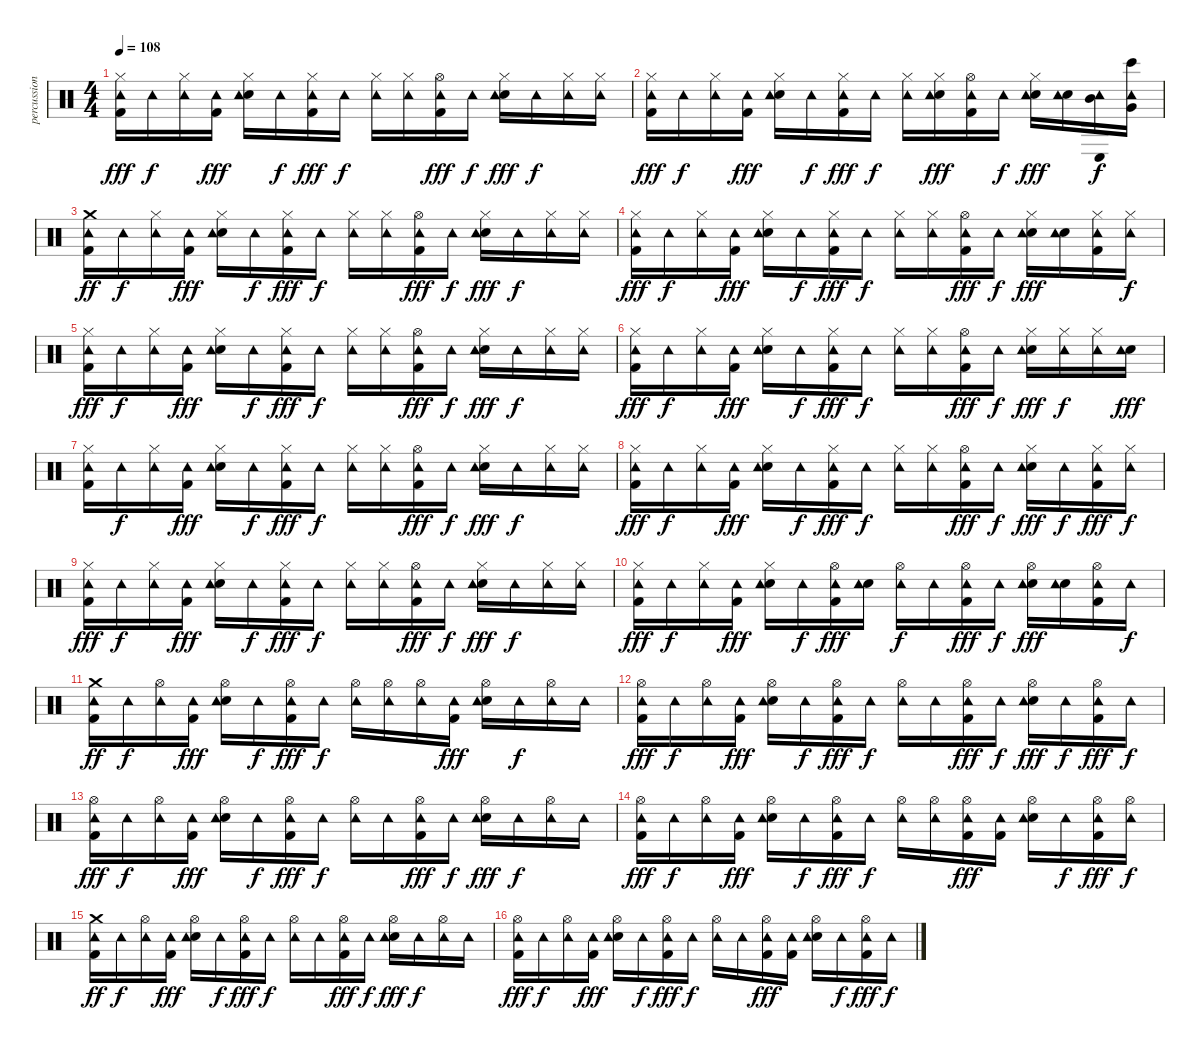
\track ("percussion" "percussion") {instrument percussion}
\staff {score}
\articulation defaults
\ts (4 4)
\tempo 108
\clef neutral
\ks c
("Kick (hit) 2" "Hi-Hat (closed)" "Tambourine (hit)").16{dy fff} "Tambourine (hit)".16{dy f} ("Hi-Hat (closed)" "Tambourine (hit)").16 ("Kick (hit) 2" "Tambourine (hit)").16{dy fff} ("Hi-Hat (closed)" "Electric Snare (hit)" "Tambourine (hit)").16 "Tambourine (hit)".16{dy f} ("Hi-Hat (closed)" "Kick (hit) 2" "Tambourine (hit)").16{dy fff} "Tambourine (hit)".16{dy f} ("Hi-Hat (closed)" "Tambourine (hit)").16 ("Hi-Hat (closed)" "Tambourine (hit)").16 ("Kick (hit) 2" "Hi-Hat (open)" "Tambourine (hit)").16{dy fff} "Tambourine (hit)".16{dy f} ("Hi-Hat (closed)" "Electric Snare (hit)" "Tambourine (hit)").16{dy fff} "Tambourine (hit)".16{dy f} ("Hi-Hat (closed)" "Tambourine (hit)").16 ("Hi-Hat (closed)" "Tambourine (hit)").16 |
("Hi-Hat (closed)" "Kick (hit) 2" "Tambourine (hit)").16{dy fff} "Tambourine (hit)".16{dy f} ("Hi-Hat (closed)" "Tambourine (hit)").16 ("Kick (hit) 2" "Tambourine (hit)").16{dy fff} ("Hi-Hat (closed)" "Electric Snare (hit)" "Tambourine (hit)").16 "Tambourine (hit)".16{dy f} ("Hi-Hat (closed)" "Kick (hit) 2" "Tambourine (hit)").16{dy fff} "Tambourine (hit)".16{dy f} ("Hi-Hat (closed)" "Tambourine (hit)").16 ("Electric Snare (hit)" "Hi-Hat (closed)" "Tambourine (hit)").16{dy fff} ("Kick (hit) 2" "Hi-Hat (open)" "Tambourine (hit)").16 "Tambourine (hit)".16{dy f} ("Hi-Hat (closed)" "Electric Snare (hit)" "Tambourine (hit)").16{dy fff} ("Electric Snare (hit)" "Tambourine (hit)").16 ("Tambourine (hit)" "Conga low (hit)" "Mid Tom (hit)").16{dy f} ("Tambourine (hit)" "Bongo High (hit)" "Very Low Tom (hit)").16 |
("Kick (hit) 2" "Crash medium (hit)" "Tambourine (hit)").16{dy ff} "Tambourine (hit)".16{dy f} ("Hi-Hat (closed)" "Tambourine (hit)").16 ("Kick (hit) 2" "Tambourine (hit)").16{dy fff} ("Hi-Hat (closed)" "Electric Snare (hit)" "Tambourine (hit)").16 "Tambourine (hit)".16{dy f} ("Hi-Hat (closed)" "Kick (hit) 2" "Tambourine (hit)").16{dy fff} "Tambourine (hit)".16{dy f} ("Hi-Hat (closed)" "Tambourine (hit)").16 ("Hi-Hat (closed)" "Tambourine (hit)").16 ("Kick (hit) 2" "Hi-Hat (open)" "Tambourine (hit)").16{dy fff} "Tambourine (hit)".16{dy f} ("Hi-Hat (closed)" "Electric Snare (hit)" "Tambourine (hit)").16{dy fff} "Tambourine (hit)".16{dy f} ("Hi-Hat (closed)" "Tambourine (hit)").16 ("Hi-Hat (closed)" "Tambourine (hit)").16 |
("Hi-Hat (closed)" "Kick (hit) 2" "Tambourine (hit)").16{dy fff} "Tambourine (hit)".16{dy f} ("Hi-Hat (closed)" "Tambourine (hit)").16 ("Kick (hit) 2" "Tambourine (hit)").16{dy fff} ("Hi-Hat (closed)" "Electric Snare (hit)" "Tambourine (hit)").16 "Tambourine (hit)".16{dy f} ("Hi-Hat (closed)" "Kick (hit) 2" "Tambourine (hit)").16{dy fff} "Tambourine (hit)".16{dy f} ("Hi-Hat (closed)" "Tambourine (hit)").16 ("Hi-Hat (closed)" "Tambourine (hit)").16 ("Kick (hit) 2" "Hi-Hat (open)" "Tambourine (hit)").16{dy fff} "Tambourine (hit)".16{dy f} ("Hi-Hat (closed)" "Electric Snare (hit)" "Tambourine (hit)").16{dy fff} ("Electric Snare (hit)" "Tambourine (hit)").16 ("Kick (hit) 2" "Hi-Hat (closed)" "Tambourine (hit)").16 ("Hi-Hat (closed)" "Tambourine (hit)").16{dy f} |
("Kick (hit) 2" "Hi-Hat (closed)" "Tambourine (hit)").16{dy fff} "Tambourine (hit)".16{dy f} ("Hi-Hat (closed)" "Tambourine (hit)").16 ("Kick (hit) 2" "Tambourine (hit)").16{dy fff} ("Hi-Hat (closed)" "Electric Snare (hit)" "Tambourine (hit)").16 "Tambourine (hit)".16{dy f} ("Hi-Hat (closed)" "Kick (hit) 2" "Tambourine (hit)").16{dy fff} "Tambourine (hit)".16{dy f} ("Hi-Hat (closed)" "Tambourine (hit)").16 ("Hi-Hat (closed)" "Tambourine (hit)").16 ("Kick (hit) 2" "Hi-Hat (open)" "Tambourine (hit)").16{dy fff} "Tambourine (hit)".16{dy f} ("Hi-Hat (closed)" "Electric Snare (hit)" "Tambourine (hit)").16{dy fff} "Tambourine (hit)".16{dy f} ("Hi-Hat (closed)" "Tambourine (hit)").16 ("Hi-Hat (closed)" "Tambourine (hit)").16 |
("Hi-Hat (closed)" "Kick (hit) 2" "Tambourine (hit)").16{dy fff} "Tambourine (hit)".16{dy f} ("Hi-Hat (closed)" "Tambourine (hit)").16 ("Kick (hit) 2" "Tambourine (hit)").16{dy fff} ("Hi-Hat (closed)" "Electric Snare (hit)" "Tambourine (hit)").16 "Tambourine (hit)".16{dy f} ("Hi-Hat (closed)" "Kick (hit) 2" "Tambourine (hit)").16{dy fff} "Tambourine (hit)".16{dy f} ("Hi-Hat (closed)" "Tambourine (hit)").16 ("Hi-Hat (closed)" "Tambourine (hit)").16 ("Kick (hit) 2" "Hi-Hat (open)" "Tambourine (hit)").16{dy fff} "Tambourine (hit)".16{dy f} ("Hi-Hat (closed)" "Electric Snare (hit)" "Tambourine (hit)").16{dy fff} ("Hi-Hat (closed)" "Tambourine (hit)").16{dy f} ("Hi-Hat (closed)" "Tambourine (hit)").16 ("Electric Snare (hit)" "Tambourine (hit)").16{dy fff} |
("Kick (hit) 2" "Hi-Hat (closed)" "Tambourine (hit)").16 "Tambourine (hit)".16{dy f} ("Hi-Hat (closed)" "Tambourine (hit)").16 ("Kick (hit) 2" "Tambourine (hit)").16{dy fff} ("Hi-Hat (closed)" "Electric Snare (hit)" "Tambourine (hit)").16 "Tambourine (hit)".16{dy f} ("Hi-Hat (closed)" "Kick (hit) 2" "Tambourine (hit)").16{dy fff} "Tambourine (hit)".16{dy f} ("Hi-Hat (closed)" "Tambourine (hit)").16 ("Hi-Hat (closed)" "Tambourine (hit)").16 ("Kick (hit) 2" "Hi-Hat (open)" "Tambourine (hit)").16{dy fff} "Tambourine (hit)".16{dy f} ("Hi-Hat (closed)" "Electric Snare (hit)" "Tambourine (hit)").16{dy fff} "Tambourine (hit)".16{dy f} ("Hi-Hat (closed)" "Tambourine (hit)").16 ("Hi-Hat (closed)" "Tambourine (hit)").16 |
("Hi-Hat (closed)" "Kick (hit) 2" "Tambourine (hit)").16{dy fff} "Tambourine (hit)".16{dy f} ("Hi-Hat (closed)" "Tambourine (hit)").16 ("Kick (hit) 2" "Tambourine (hit)").16{dy fff} ("Hi-Hat (closed)" "Electric Snare (hit)" "Tambourine (hit)").16 "Tambourine (hit)".16{dy f} ("Hi-Hat (closed)" "Kick (hit) 2" "Tambourine (hit)").16{dy fff} "Tambourine (hit)".16{dy f} ("Hi-Hat (closed)" "Tambourine (hit)").16 ("Hi-Hat (closed)" "Tambourine (hit)").16 ("Kick (hit) 2" "Hi-Hat (open)" "Tambourine (hit)").16{dy fff} "Tambourine (hit)".16{dy f} ("Hi-Hat (closed)" "Electric Snare (hit)" "Tambourine (hit)").16{dy fff} "Tambourine (hit)".16{dy f} ("Kick (hit) 2" "Hi-Hat (closed)" "Tambourine (hit)").16{dy fff} ("Hi-Hat (closed)" "Tambourine (hit)").16{dy f} |
("Kick (hit) 2" "Hi-Hat (closed)" "Tambourine (hit)").16{dy fff} "Tambourine (hit)".16{dy f} ("Hi-Hat (closed)" "Tambourine (hit)").16 ("Kick (hit) 2" "Tambourine (hit)").16{dy fff} ("Hi-Hat (closed)" "Electric Snare (hit)" "Tambourine (hit)").16 "Tambourine (hit)".16{dy f} ("Hi-Hat (closed)" "Kick (hit) 2" "Tambourine (hit)").16{dy fff} "Tambourine (hit)".16{dy f} ("Hi-Hat (closed)" "Tambourine (hit)").16 ("Hi-Hat (closed)" "Tambourine (hit)").16 ("Kick (hit) 2" "Hi-Hat (open)" "Tambourine (hit)").16{dy fff} "Tambourine (hit)".16{dy f} ("Hi-Hat (closed)" "Electric Snare (hit)" "Tambourine (hit)").16{dy fff} "Tambourine (hit)".16{dy f} ("Hi-Hat (closed)" "Tambourine (hit)").16 ("Hi-Hat (closed)" "Tambourine (hit)").16 |
("Hi-Hat (closed)" "Kick (hit) 2" "Tambourine (hit)").16{dy fff} "Tambourine (hit)".16{dy f} ("Hi-Hat (closed)" "Tambourine (hit)").16 ("Kick (hit) 2" "Tambourine (hit)").16{dy fff} ("Hi-Hat (closed)" "Electric Snare (hit)" "Tambourine (hit)").16 "Tambourine (hit)".16{dy f} ("Hi-Hat (open)" "Kick (hit) 2" "Tambourine (hit)").16{dy fff} ("Electric Snare (hit)" "Tambourine (hit)").16 ("Hi-Hat (open)" "Tambourine (hit)").16{dy f} "Tambourine (hit)".16 ("Kick (hit) 2" "Hi-Hat (open)" "Tambourine (hit)").16{dy fff} "Tambourine (hit)".16{dy f} ("Hi-Hat (open)" "Electric Snare (hit)" "Tambourine (hit)").16{dy fff} ("Electric Snare (hit)" "Tambourine (hit)").16 ("Hi-Hat (open)" "Kick (hit) 2" "Tambourine (hit)").16 "Tambourine (hit)".16{dy f} |
("Kick (hit) 2" "Crash medium (hit)" "Tambourine (hit)").16{dy ff} "Tambourine (hit)".16{dy f} ("Hi-Hat (open)" "Tambourine (hit)").16 ("Kick (hit) 2" "Tambourine (hit)").16{dy fff} ("Hi-Hat (open)" "Electric Snare (hit)" "Tambourine (hit)").16 "Tambourine (hit)".16{dy f} ("Hi-Hat (open)" "Kick (hit) 2" "Tambourine (hit)").16{dy fff} "Tambourine (hit)".16{dy f} ("Hi-Hat (open)" "Tambourine (hit)").16 ("Hi-Hat (open)" "Tambourine (hit)").16 ("Hi-Hat (open)" "Tambourine (hit)").16 ("Kick (hit) 2" "Tambourine (hit)").16{dy fff} ("Hi-Hat (open)" "Electric Snare (hit)" "Tambourine (hit)").16 "Tambourine (hit)".16{dy f} ("Hi-Hat (open)" "Tambourine (hit)").16 "Tambourine (hit)".16 |
("Hi-Hat (open)" "Kick (hit) 2" "Tambourine (hit)").16{dy fff} "Tambourine (hit)".16{dy f} ("Hi-Hat (open)" "Tambourine (hit)").16 ("Kick (hit) 2" "Tambourine (hit)").16{dy fff} ("Hi-Hat (open)" "Electric Snare (hit)" "Tambourine (hit)").16 "Tambourine (hit)".16{dy f} ("Hi-Hat (open)" "Kick (hit) 2" "Tambourine (hit)").16{dy fff} "Tambourine (hit)".16{dy f} ("Hi-Hat (open)" "Tambourine (hit)").16 "Tambourine (hit)".16 ("Kick (hit) 2" "Hi-Hat (open)" "Tambourine (hit)").16{dy fff} "Tambourine (hit)".16{dy f} ("Hi-Hat (open)" "Electric Snare (hit)" "Tambourine (hit)").16{dy fff} "Tambourine (hit)".16{dy f} ("Kick (hit) 2" "Hi-Hat (open)" "Tambourine (hit)").16{dy fff} "Tambourine (hit)".16{dy f} |
("Kick (hit) 2" "Hi-Hat (open)" "Tambourine (hit)").16{dy fff} "Tambourine (hit)".16{dy f} ("Hi-Hat (open)" "Tambourine (hit)").16 ("Kick (hit) 2" "Tambourine (hit)").16{dy fff} ("Hi-Hat (open)" "Electric Snare (hit)" "Tambourine (hit)").16 "Tambourine (hit)".16{dy f} ("Hi-Hat (open)" "Kick (hit) 2" "Tambourine (hit)").16{dy fff} "Tambourine (hit)".16{dy f} ("Hi-Hat (open)" "Tambourine (hit)").16 "Tambourine (hit)".16 ("Kick (hit) 2" "Hi-Hat (open)" "Tambourine (hit)").16{dy fff} "Tambourine (hit)".16{dy f} ("Hi-Hat (open)" "Electric Snare (hit)" "Tambourine (hit)").16{dy fff} "Tambourine (hit)".16{dy f} ("Hi-Hat (open)" "Tambourine (hit)").16 "Tambourine (hit)".16 |
("Hi-Hat (open)" "Kick (hit) 2" "Tambourine (hit)").16{dy fff} "Tambourine (hit)".16{dy f} ("Hi-Hat (open)" "Tambourine (hit)").16 ("Kick (hit) 2" "Tambourine (hit)").16{dy fff} ("Hi-Hat (open)" "Electric Snare (hit)" "Tambourine (hit)").16 "Tambourine (hit)".16{dy f} ("Hi-Hat (open)" "Kick (hit) 2" "Tambourine (hit)").16{dy fff} "Tambourine (hit)".16{dy f} ("Hi-Hat (open)" "Tambourine (hit)").16 ("Hi-Hat (open)" "Tambourine (hit)").16 ("Kick (hit) 2" "Hi-Hat (open)" "Tambourine (hit)").16{dy fff} ("Kick (hit) 2" "Tambourine (hit)").16 ("Hi-Hat (open)" "Electric Snare (hit)" "Tambourine (hit)").16 "Tambourine (hit)".16{dy f} ("Kick (hit) 2" "Hi-Hat (open)" "Tambourine (hit)").16{dy fff} ("Hi-Hat (open)" "Tambourine (hit)").16{dy f} |
("Kick (hit) 2" "Crash medium (hit)" "Tambourine (hit)").16{dy ff} "Tambourine (hit)".16{dy f} ("Hi-Hat (open)" "Tambourine (hit)").16 ("Kick (hit) 2" "Tambourine (hit)").16{dy fff} ("Hi-Hat (open)" "Electric Snare (hit)" "Tambourine (hit)").16 "Tambourine (hit)".16{dy f} ("Hi-Hat (open)" "Kick (hit) 2" "Tambourine (hit)").16{dy fff} "Tambourine (hit)".16{dy f} ("Hi-Hat (open)" "Tambourine (hit)").16 "Tambourine (hit)".16 ("Kick (hit) 2" "Hi-Hat (open)" "Tambourine (hit)").16{dy fff} "Tambourine (hit)".16{dy f} ("Hi-Hat (open)" "Electric Snare (hit)" "Tambourine (hit)").16{dy fff} "Tambourine (hit)".16{dy f} ("Hi-Hat (open)" "Tambourine (hit)").16 "Tambourine (hit)".16 |
("Hi-Hat (open)" "Kick (hit) 2" "Tambourine (hit)").16{dy fff} "Tambourine (hit)".16{dy f} ("Hi-Hat (open)" "Tambourine (hit)").16 ("Kick (hit) 2" "Tambourine (hit)").16{dy fff} ("Hi-Hat (open)" "Electric Snare (hit)" "Tambourine (hit)").16 "Tambourine (hit)".16{dy f} ("Hi-Hat (open)" "Kick (hit) 2" "Tambourine (hit)").16{dy fff} "Tambourine (hit)".16{dy f} ("Hi-Hat (open)" "Tambourine (hit)").16 "Tambourine (hit)".16 ("Kick (hit) 2" "Hi-Hat (open)" "Tambourine (hit)").16{dy fff} ("Kick (hit) 2" "Tambourine (hit)").16 ("Hi-Hat (open)" "Electric Snare (hit)" "Tambourine (hit)").16 "Tambourine (hit)".16{dy f} ("Kick (hit) 2" "Hi-Hat (open)" "Tambourine (hit)").16{dy fff} "Tambourine (hit)".16{dy f}
